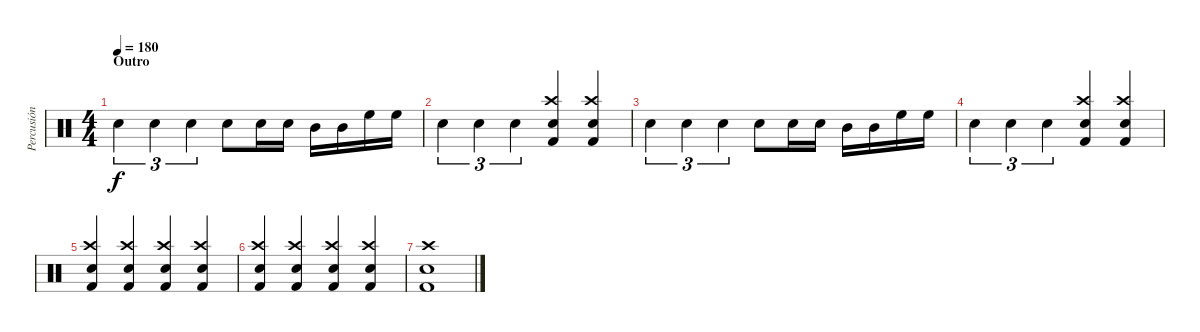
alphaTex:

\track ("Percusión" "Percusión") {instrument percussion}
\staff {score}
\articulation defaults
\ts (4 4)
\section ("" "Outro")
\tempo 180
\clef neutral
\ks c "Snare (hit) 2".4{tu (3 2) dy f} "Snare (hit) 2".4{tu (3 2)} "Snare (hit) 2".4{tu (3 2)} "Snare (hit) 2".8 "Snare (hit) 2".16 "Snare (hit) 2".16 "Mid Tom (hit)".16 "Mid Tom (hit)".16 "High Floor Tom (hit)".16 "High Floor Tom (hit)".16
|
"Snare (hit) 2".4{tu (3 2)} "Snare (hit) 2".4{tu (3 2)} "Snare (hit) 2".4{tu (3 2)} ("Snare (hit) 2" "Crash high (hit)" "Kick (hit) 2").4 ("Snare (hit) 2" "Crash high (hit)" "Kick (hit) 2").4 |
"Snare (hit) 2".4{tu (3 2)} "Snare (hit) 2".4{tu (3 2)} "Snare (hit) 2".4{tu (3 2)} "Snare (hit) 2".8 "Snare (hit) 2".16 "Snare (hit) 2".16 "Mid Tom (hit)".16 "Mid Tom (hit)".16 "High Floor Tom (hit)".16 "High Floor Tom (hit)".16 |
"Snare (hit) 2".4{tu (3 2)} "Snare (hit) 2".4{tu (3 2)} "Snare (hit) 2".4{tu (3 2)} ("Snare (hit) 2" "Crash high (hit)" "Kick (hit) 2").4 ("Snare (hit) 2" "Crash high (hit)" "Kick (hit) 2").4 |
("Snare (hit) 2" "Crash high (hit)" "Kick (hit) 2").4 ("Snare (hit) 2" "Crash high (hit)" "Kick (hit) 2").4 ("Snare (hit) 2" "Crash high (hit)" "Kick (hit) 2").4 ("Snare (hit) 2" "Crash high (hit)" "Kick (hit) 2").4 |
("Snare (hit) 2" "Crash high (hit)" "Kick (hit) 2").4 ("Snare (hit) 2" "Crash high (hit)" "Kick (hit) 2").4 ("Snare (hit) 2" "Crash high (hit)" "Kick (hit) 2").4 ("Snare (hit) 2" "Crash high (hit)" "Kick (hit) 2").4 |
("Snare (hit) 2" "Crash high (hit)" "Kick (hit) 2").1
